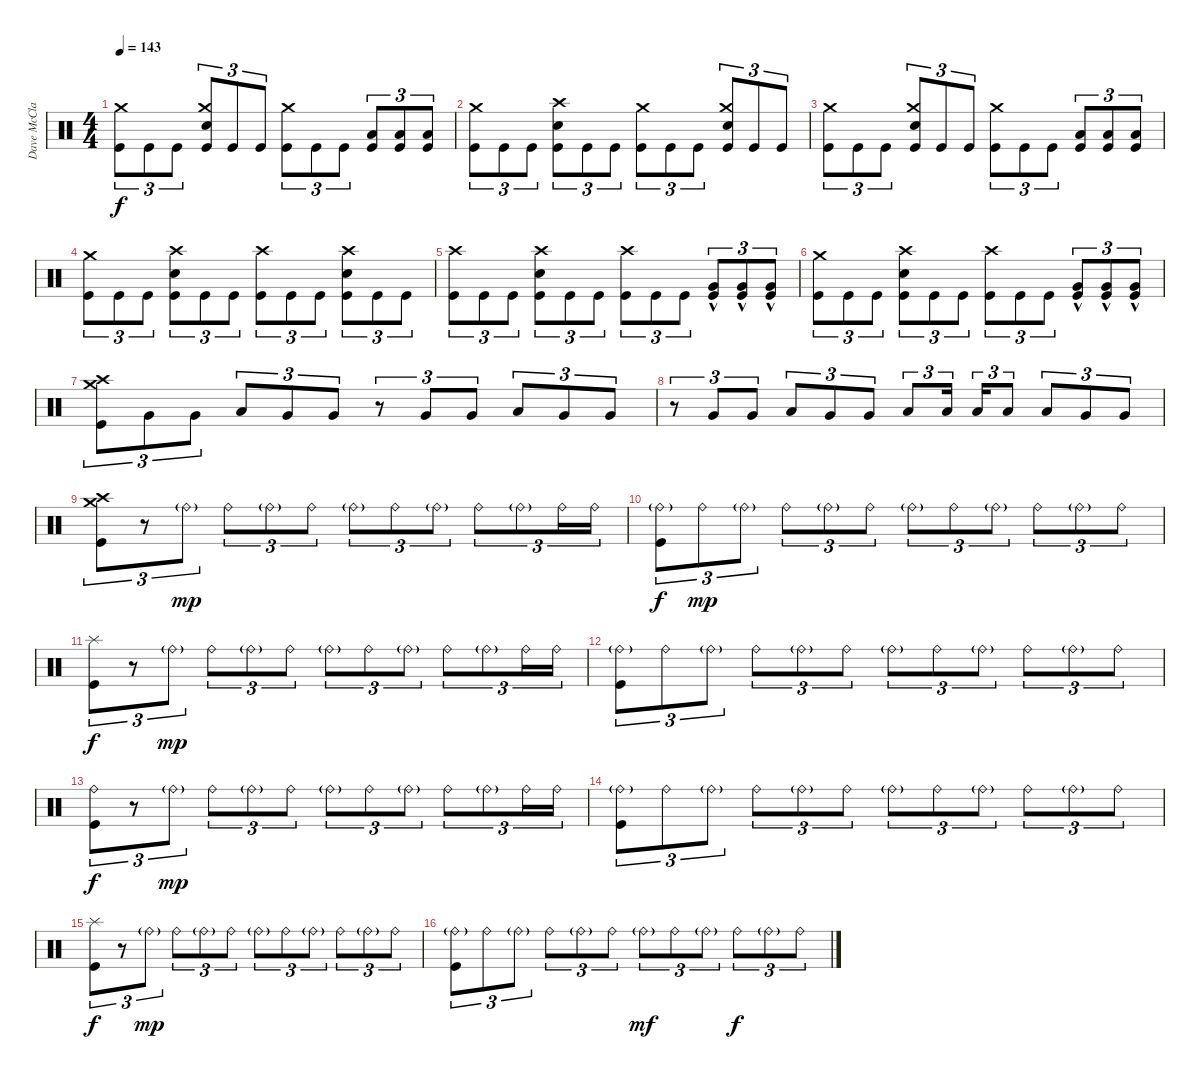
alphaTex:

\track ("Dave McClaine" "Dave McCla") {instrument percussion}
\staff {score}
\articulation defaults
\ts (4 4)
\tempo 143
\clef neutral
\ks c
("Kick (hit)" "Crash medium (hit)").8{tu (3 2) dy f} "Kick (hit)".8{tu (3 2)} "Kick (hit)".8{tu (3 2)} ("Kick (hit)" "Crash medium (hit)" "Snare (hit) 2").8{tu (3 2)} "Kick (hit)".8{tu (3 2)} "Kick (hit)".8{tu (3 2)} ("Kick (hit)" "Crash medium (hit)").8{tu (3 2)} "Kick (hit)".8{tu (3 2)} "Kick (hit)".8{tu (3 2)} ("Kick (hit)" "Low Tom (hit)").8{tu (3 2)} ("Kick (hit)" "Low Tom (hit)").8{tu (3 2)} ("Kick (hit)" "Low Tom (hit)").8{tu (3 2)} |
("Kick (hit)" "Crash medium (hit)").8{tu (3 2)} "Kick (hit)".8{tu (3 2)} "Kick (hit)".8{tu (3 2)} ("Kick (hit)" "Snare (hit) 2" "Crash high (hit)").8{tu (3 2)} "Kick (hit)".8{tu (3 2)} "Kick (hit)".8{tu (3 2)} ("Kick (hit)" "Crash medium (hit)").8{tu (3 2)} "Kick (hit)".8{tu (3 2)} "Kick (hit)".8{tu (3 2)} ("Kick (hit)" "Crash medium (hit)" "Snare (hit) 2").8{tu (3 2)} "Kick (hit)".8{tu (3 2)} "Kick (hit)".8{tu (3 2)} |
("Kick (hit)" "Crash medium (hit)").8{tu (3 2)} "Kick (hit)".8{tu (3 2)} "Kick (hit)".8{tu (3 2)} ("Kick (hit)" "Crash medium (hit)" "Snare (hit) 2").8{tu (3 2)} "Kick (hit)".8{tu (3 2)} "Kick (hit)".8{tu (3 2)} ("Kick (hit)" "Crash medium (hit)").8{tu (3 2)} "Kick (hit)".8{tu (3 2)} "Kick (hit)".8{tu (3 2)} ("Kick (hit)" "Low Tom (hit)").8{tu (3 2)} ("Kick (hit)" "Low Tom (hit)").8{tu (3 2)} ("Kick (hit)" "Low Tom (hit)").8{tu (3 2)} |
("Kick (hit)" "Crash medium (hit)").8{tu (3 2)} "Kick (hit)".8{tu (3 2)} "Kick (hit)".8{tu (3 2)} ("Kick (hit)" "Snare (hit) 2" "Crash high (hit)").8{tu (3 2)} "Kick (hit)".8{tu (3 2)} "Kick (hit)".8{tu (3 2)} ("Kick (hit)" "Crash high (hit)").8{tu (3 2)} "Kick (hit)".8{tu (3 2)} "Kick (hit)".8{tu (3 2)} ("Kick (hit)" "Snare (hit) 2" "Crash high (hit)").8{tu (3 2)} "Kick (hit)".8{tu (3 2)} "Kick (hit)".8{tu (3 2)} |
("Kick (hit)" "Crash high (hit)").8{tu (3 2)} "Kick (hit)".8{tu (3 2)} "Kick (hit)".8{tu (3 2)} ("Kick (hit)" "Snare (hit) 2" "Crash high (hit)").8{tu (3 2)} "Kick (hit)".8{tu (3 2)} "Kick (hit)".8{tu (3 2)} ("Kick (hit)" "Crash high (hit)").8{tu (3 2)} "Kick (hit)".8{tu (3 2)} "Kick (hit)".8{tu (3 2)} ("Kick (hit)" "Very Low Tom (hit)"{hac}).8{tu (3 2)} ("Kick (hit)" "Very Low Tom (hit)"{hac}).8{tu (3 2)} ("Kick (hit)" "Very Low Tom (hit)"{hac}).8{tu (3 2)} |
("Kick (hit)" "Crash medium (hit)").8{tu (3 2)} "Kick (hit)".8{tu (3 2)} "Kick (hit)".8{tu (3 2)} ("Kick (hit)" "Snare (hit) 2" "Crash high (hit)").8{tu (3 2)} "Kick (hit)".8{tu (3 2)} "Kick (hit)".8{tu (3 2)} ("Kick (hit)" "Crash high (hit)").8{tu (3 2)} "Kick (hit)".8{tu (3 2)} "Kick (hit)".8{tu (3 2)} ("Kick (hit)" "Very Low Tom (hit)"{hac}).8{tu (3 2)} ("Kick (hit)" "Very Low Tom (hit)"{hac}).8{tu (3 2)} ("Kick (hit)" "Very Low Tom (hit)"{hac}).8{tu (3 2)} |
("Kick (hit)" "Crash high (hit)" "Crash medium (hit)").8{tu (3 2)} "Very Low Tom (hit)".8{tu (3 2)} "Very Low Tom (hit)".8{tu (3 2)} "Low Tom (hit)".8{tu (3 2)} "Very Low Tom (hit)".8{tu (3 2)} "Very Low Tom (hit)".8{tu (3 2)} r.8{tu (3 2)} "Very Low Tom (hit)".8{tu (3 2)} "Very Low Tom (hit)".8{tu (3 2)} "Low Tom (hit)".8{tu (3 2)} "Very Low Tom (hit)".8{tu (3 2)} "Very Low Tom (hit)".8{tu (3 2)} |
r.8{tu (3 2)} "Very Low Tom (hit)".8{tu (3 2)} "Very Low Tom (hit)".8{tu (3 2)} "Low Tom (hit)".8{tu (3 2)} "Very Low Tom (hit)".8{tu (3 2)} "Very Low Tom (hit)".8{tu (3 2)} "Low Tom (hit)".8{tu (3 2)} "Low Tom (hit)".16{tu (3 2)} "Low Tom (hit)".16{tu (3 2)} "Low Tom (hit)".8{tu (3 2)} "Low Tom (hit)".8{tu (3 2)} "Very Low Tom (hit)".8{tu (3 2)} "Very Low Tom (hit)".8{tu (3 2)} |
("Kick (hit)" "Crash high (hit)" "Crash medium (hit)").8{tu (3 2)} r.8{tu (3 2)} "Ride (bell)"{g}.8{tu (3 2) dy mp} "Ride (bell)".8{tu (3 2)} "Ride (bell)"{g}.8{tu (3 2)} "Ride (bell)".8{tu (3 2)} "Ride (bell)"{g}.8{tu (3 2)} "Ride (bell)".8{tu (3 2)} "Ride (bell)"{g}.8{tu (3 2)} "Ride (bell)".8{tu (3 2)} "Ride (bell)"{g}.8{tu (3 2)} "Ride (bell)".16{tu (3 2)} "Ride (bell)".16{tu (3 2)} |
("Kick (hit)" "Ride (bell)"{g}).8{tu (3 2) dy f} "Ride (bell)".8{tu (3 2) dy mp} "Ride (bell)"{g}.8{tu (3 2)} "Ride (bell)".8{tu (3 2)} "Ride (bell)"{g}.8{tu (3 2)} "Ride (bell)".8{tu (3 2)} "Ride (bell)"{g}.8{tu (3 2)} "Ride (bell)".8{tu (3 2)} "Ride (bell)"{g}.8{tu (3 2)} "Ride (bell)".8{tu (3 2)} "Ride (bell)"{g}.8{tu (3 2)} "Ride (bell)".8{tu (3 2)} |
("Kick (hit)" "Splash (hit)").8{tu (3 2) dy f} r.8{tu (3 2)} "Ride (bell)"{g}.8{tu (3 2) dy mp} "Ride (bell)".8{tu (3 2)} "Ride (bell)"{g}.8{tu (3 2)} "Ride (bell)".8{tu (3 2)} "Ride (bell)"{g}.8{tu (3 2)} "Ride (bell)".8{tu (3 2)} "Ride (bell)"{g}.8{tu (3 2)} "Ride (bell)".8{tu (3 2)} "Ride (bell)"{g}.8{tu (3 2)} "Ride (bell)".16{tu (3 2)} "Ride (bell)".16{tu (3 2)} |
("Kick (hit)" "Ride (bell)"{g}).8{tu (3 2)} "Ride (bell)".8{tu (3 2)} "Ride (bell)"{g}.8{tu (3 2)} "Ride (bell)".8{tu (3 2)} "Ride (bell)"{g}.8{tu (3 2)} "Ride (bell)".8{tu (3 2)} "Ride (bell)"{g}.8{tu (3 2)} "Ride (bell)".8{tu (3 2)} "Ride (bell)"{g}.8{tu (3 2)} "Ride (bell)".8{tu (3 2)} "Ride (bell)"{g}.8{tu (3 2)} "Ride (bell)".8{tu (3 2)} |
("Kick (hit)" "Ride (bell)").8{tu (3 2) dy f} r.8{tu (3 2)} "Ride (bell)"{g}.8{tu (3 2) dy mp} "Ride (bell)".8{tu (3 2)} "Ride (bell)"{g}.8{tu (3 2)} "Ride (bell)".8{tu (3 2)} "Ride (bell)"{g}.8{tu (3 2)} "Ride (bell)".8{tu (3 2)} "Ride (bell)"{g}.8{tu (3 2)} "Ride (bell)".8{tu (3 2)} "Ride (bell)"{g}.8{tu (3 2)} "Ride (bell)".16{tu (3 2)} "Ride (bell)".16{tu (3 2)} |
("Kick (hit)" "Ride (bell)"{g}).8{tu (3 2)} "Ride (bell)".8{tu (3 2)} "Ride (bell)"{g}.8{tu (3 2)} "Ride (bell)".8{tu (3 2)} "Ride (bell)"{g}.8{tu (3 2)} "Ride (bell)".8{tu (3 2)} "Ride (bell)"{g}.8{tu (3 2)} "Ride (bell)".8{tu (3 2)} "Ride (bell)"{g}.8{tu (3 2)} "Ride (bell)".8{tu (3 2)} "Ride (bell)"{g}.8{tu (3 2)} "Ride (bell)".8{tu (3 2)} |
("Kick (hit)" "Splash (hit)").8{tu (3 2) dy f} r.8{tu (3 2)} "Ride (bell)"{g}.8{tu (3 2) dy mp} "Ride (bell)".8{tu (3 2)} "Ride (bell)"{g}.8{tu (3 2)} "Ride (bell)".8{tu (3 2)} "Ride (bell)"{g}.8{tu (3 2)} "Ride (bell)".8{tu (3 2)} "Ride (bell)"{g}.8{tu (3 2)} "Ride (bell)".8{tu (3 2)} "Ride (bell)"{g}.8{tu (3 2)} "Ride (bell)".8{tu (3 2)} |
("Kick (hit)" "Ride (bell)"{g}).8{tu (3 2)} "Ride (bell)".8{tu (3 2)} "Ride (bell)"{g}.8{tu (3 2)} "Ride (bell)".8{tu (3 2)} "Ride (bell)"{g}.8{tu (3 2)} "Ride (bell)".8{tu (3 2)} "Ride (bell)"{g}.8{tu (3 2) dy mf} "Ride (bell)".8{tu (3 2)} "Ride (bell)"{g}.8{tu (3 2)} "Ride (bell)".8{tu (3 2) dy f} "Ride (bell)"{g}.8{tu (3 2)} "Ride (bell)".8{tu (3 2)}
